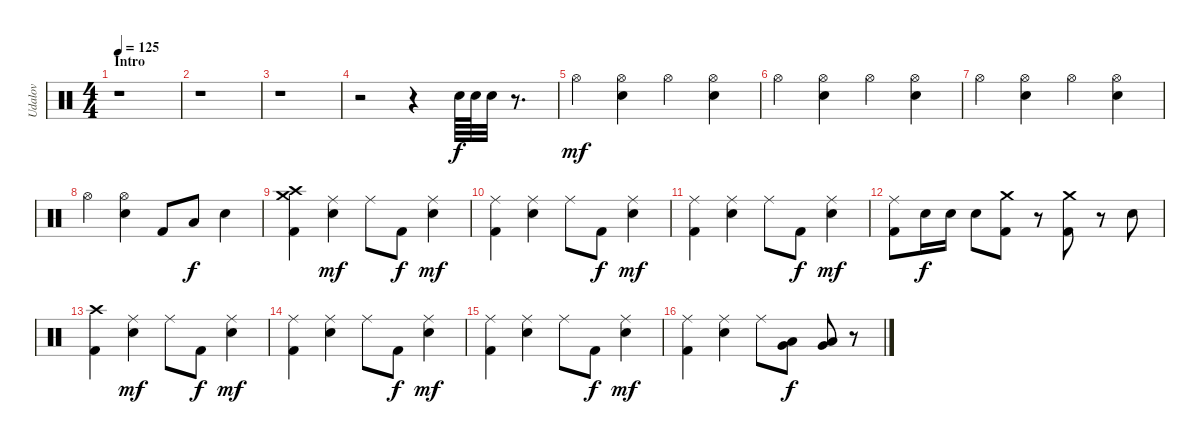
\track ("Udalov" "Udalov") {instrument percussion}
\staff {score}
\articulation defaults
\ts (4 4)
\section ("" "Intro")
\tempo 125
\clef neutral
\ks c
r.1{dy f} |
r.1 |
r.1 |
r.2 r.4 "Snare (hit) 2".64 "Snare (hit) 2".64 "Snare (hit) 2".32 r.8{d} |
"Hi-Hat (open)".4{dy mf} ("Hi-Hat (open)" "Snare (hit) 2").4 "Hi-Hat (open)".4 ("Hi-Hat (open)" "Snare (hit) 2").4 |
"Hi-Hat (open)".4 ("Hi-Hat (open)" "Snare (hit) 2").4 "Hi-Hat (open)".4 ("Hi-Hat (open)" "Snare (hit) 2").4 |
"Hi-Hat (open)".4 ("Hi-Hat (open)" "Snare (hit) 2").4 "Hi-Hat (open)".4 ("Hi-Hat (open)" "Snare (hit) 2").4 |
"Hi-Hat (open)".4 ("Hi-Hat (open)" "Snare (hit) 2").4 "Kick (hit) 2".8 "Low Tom (hit)".8{dy f} "Snare (hit) 2".4 |
("Kick (hit) 2" "Crash high (hit)" "Crash medium (hit)").4 ("Snare (hit) 2" "Ride (middle)").4{dy mf} "Ride (middle)".8 "Kick (hit) 2".8{dy f} ("Snare (hit) 2" "Ride (middle)").4{dy mf} |
("Kick (hit) 2" "Ride (middle)").4 ("Snare (hit) 2" "Ride (middle)").4 "Ride (middle)".8 "Kick (hit) 2".8{dy f} ("Snare (hit) 2" "Ride (middle)").4{dy mf} |
("Kick (hit) 2" "Ride (middle)").4 ("Snare (hit) 2" "Ride (middle)").4 "Ride (middle)".8 "Kick (hit) 2".8{dy f} ("Snare (hit) 2" "Ride (middle)").4{dy mf} |
("Kick (hit) 2" "Ride (middle)").8 "Snare (hit) 2".16{dy f} "Snare (hit) 2".16 "Snare (hit) 2".8 ("Kick (hit) 2" "Crash medium (hit)").8 r.8 ("Kick (hit) 2" "Crash medium (hit)").8 r.8 "Snare (hit) 2".8 |
("Kick (hit) 2" "Crash high (hit)").4 ("Snare (hit) 2" "Ride (middle)").4{dy mf} "Ride (middle)".8 "Kick (hit) 2".8{dy f} ("Snare (hit) 2" "Ride (middle)").4{dy mf} |
("Kick (hit) 2" "Ride (middle)").4 ("Snare (hit) 2" "Ride (middle)").4 "Ride (middle)".8 "Kick (hit) 2".8{dy f} ("Snare (hit) 2" "Ride (middle)").4{dy mf} |
("Kick (hit) 2" "Ride (middle)").4 ("Snare (hit) 2" "Ride (middle)").4 "Ride (middle)".8 "Kick (hit) 2".8{dy f} ("Snare (hit) 2" "Ride (middle)").4{dy mf} |
("Kick (hit) 2" "Ride (middle)").4 ("Snare (hit) 2" "Ride (middle)").4 "Ride (middle)".8 ("Low Tom (hit)" "Very Low Tom (hit)").8{dy f} ("Low Tom (hit)" "Very Low Tom (hit)").8 r.8
